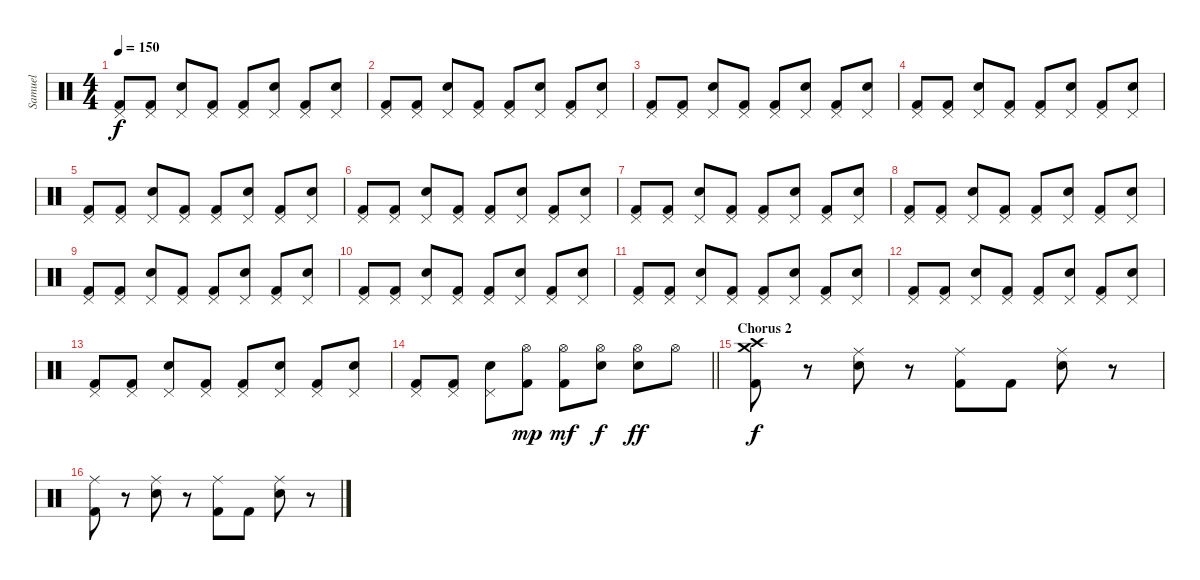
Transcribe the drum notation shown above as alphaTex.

\track ("Samuel" "Samuel") {instrument percussion}
\staff {score}
\articulation defaults
\ts (4 4)
\tempo 150
\clef neutral
\ks c
("Pedal Hi-Hat (hit)" "Kick (hit) 2").8{dy f} ("Pedal Hi-Hat (hit)" "Kick (hit) 2").8 ("Pedal Hi-Hat (hit)" "Snare (hit) 2").8 ("Pedal Hi-Hat (hit)" "Kick (hit) 2").8 ("Pedal Hi-Hat (hit)" "Kick (hit) 2").8 ("Pedal Hi-Hat (hit)" "Snare (hit) 2").8 ("Pedal Hi-Hat (hit)" "Kick (hit) 2").8 ("Pedal Hi-Hat (hit)" "Snare (hit) 2").8 |
("Pedal Hi-Hat (hit)" "Kick (hit) 2").8 ("Pedal Hi-Hat (hit)" "Kick (hit) 2").8 ("Pedal Hi-Hat (hit)" "Snare (hit) 2").8 ("Pedal Hi-Hat (hit)" "Kick (hit) 2").8 ("Pedal Hi-Hat (hit)" "Kick (hit) 2").8 ("Pedal Hi-Hat (hit)" "Snare (hit) 2").8 ("Pedal Hi-Hat (hit)" "Kick (hit) 2").8 ("Pedal Hi-Hat (hit)" "Snare (hit) 2").8 |
("Pedal Hi-Hat (hit)" "Kick (hit) 2").8 ("Pedal Hi-Hat (hit)" "Kick (hit) 2").8 ("Pedal Hi-Hat (hit)" "Snare (hit) 2").8 ("Pedal Hi-Hat (hit)" "Kick (hit) 2").8 ("Pedal Hi-Hat (hit)" "Kick (hit) 2").8 ("Pedal Hi-Hat (hit)" "Snare (hit) 2").8 ("Pedal Hi-Hat (hit)" "Kick (hit) 2").8 ("Pedal Hi-Hat (hit)" "Snare (hit) 2").8 |
("Pedal Hi-Hat (hit)" "Kick (hit) 2").8 ("Pedal Hi-Hat (hit)" "Kick (hit) 2").8 ("Pedal Hi-Hat (hit)" "Snare (hit) 2").8 ("Pedal Hi-Hat (hit)" "Kick (hit) 2").8 ("Pedal Hi-Hat (hit)" "Kick (hit) 2").8 ("Pedal Hi-Hat (hit)" "Snare (hit) 2").8 ("Pedal Hi-Hat (hit)" "Kick (hit) 2").8 ("Pedal Hi-Hat (hit)" "Snare (hit) 2").8 |
("Pedal Hi-Hat (hit)" "Kick (hit) 2").8 ("Pedal Hi-Hat (hit)" "Kick (hit) 2").8 ("Pedal Hi-Hat (hit)" "Snare (hit) 2").8 ("Pedal Hi-Hat (hit)" "Kick (hit) 2").8 ("Pedal Hi-Hat (hit)" "Kick (hit) 2").8 ("Pedal Hi-Hat (hit)" "Snare (hit) 2").8 ("Pedal Hi-Hat (hit)" "Kick (hit) 2").8 ("Pedal Hi-Hat (hit)" "Snare (hit) 2").8 |
("Pedal Hi-Hat (hit)" "Kick (hit) 2").8 ("Pedal Hi-Hat (hit)" "Kick (hit) 2").8 ("Pedal Hi-Hat (hit)" "Snare (hit) 2").8 ("Pedal Hi-Hat (hit)" "Kick (hit) 2").8 ("Pedal Hi-Hat (hit)" "Kick (hit) 2").8 ("Pedal Hi-Hat (hit)" "Snare (hit) 2").8 ("Pedal Hi-Hat (hit)" "Kick (hit) 2").8 ("Pedal Hi-Hat (hit)" "Snare (hit) 2").8 |
("Pedal Hi-Hat (hit)" "Kick (hit) 2").8 ("Pedal Hi-Hat (hit)" "Kick (hit) 2").8 ("Pedal Hi-Hat (hit)" "Snare (hit) 2").8 ("Pedal Hi-Hat (hit)" "Kick (hit) 2").8 ("Pedal Hi-Hat (hit)" "Kick (hit) 2").8 ("Pedal Hi-Hat (hit)" "Snare (hit) 2").8 ("Pedal Hi-Hat (hit)" "Kick (hit) 2").8 ("Pedal Hi-Hat (hit)" "Snare (hit) 2").8 |
("Pedal Hi-Hat (hit)" "Kick (hit) 2").8 ("Pedal Hi-Hat (hit)" "Kick (hit) 2").8 ("Pedal Hi-Hat (hit)" "Snare (hit) 2").8 ("Pedal Hi-Hat (hit)" "Kick (hit) 2").8 ("Pedal Hi-Hat (hit)" "Kick (hit) 2").8 ("Pedal Hi-Hat (hit)" "Snare (hit) 2").8 ("Pedal Hi-Hat (hit)" "Kick (hit) 2").8 ("Pedal Hi-Hat (hit)" "Snare (hit) 2").8 |
("Pedal Hi-Hat (hit)" "Kick (hit) 2").8 ("Pedal Hi-Hat (hit)" "Kick (hit) 2").8 ("Pedal Hi-Hat (hit)" "Snare (hit) 2").8 ("Pedal Hi-Hat (hit)" "Kick (hit) 2").8 ("Pedal Hi-Hat (hit)" "Kick (hit) 2").8 ("Pedal Hi-Hat (hit)" "Snare (hit) 2").8 ("Pedal Hi-Hat (hit)" "Kick (hit) 2").8 ("Pedal Hi-Hat (hit)" "Snare (hit) 2").8 |
("Pedal Hi-Hat (hit)" "Kick (hit) 2").8 ("Pedal Hi-Hat (hit)" "Kick (hit) 2").8 ("Pedal Hi-Hat (hit)" "Snare (hit) 2").8 ("Pedal Hi-Hat (hit)" "Kick (hit) 2").8 ("Pedal Hi-Hat (hit)" "Kick (hit) 2").8 ("Pedal Hi-Hat (hit)" "Snare (hit) 2").8 ("Pedal Hi-Hat (hit)" "Kick (hit) 2").8 ("Pedal Hi-Hat (hit)" "Snare (hit) 2").8 |
("Pedal Hi-Hat (hit)" "Kick (hit) 2").8 ("Pedal Hi-Hat (hit)" "Kick (hit) 2").8 ("Pedal Hi-Hat (hit)" "Snare (hit) 2").8 ("Pedal Hi-Hat (hit)" "Kick (hit) 2").8 ("Pedal Hi-Hat (hit)" "Kick (hit) 2").8 ("Pedal Hi-Hat (hit)" "Snare (hit) 2").8 ("Pedal Hi-Hat (hit)" "Kick (hit) 2").8 ("Pedal Hi-Hat (hit)" "Snare (hit) 2").8 |
("Pedal Hi-Hat (hit)" "Kick (hit) 2").8 ("Pedal Hi-Hat (hit)" "Kick (hit) 2").8 ("Pedal Hi-Hat (hit)" "Snare (hit) 2").8 ("Pedal Hi-Hat (hit)" "Kick (hit) 2").8 ("Pedal Hi-Hat (hit)" "Kick (hit) 2").8 ("Pedal Hi-Hat (hit)" "Snare (hit) 2").8 ("Pedal Hi-Hat (hit)" "Kick (hit) 2").8 ("Pedal Hi-Hat (hit)" "Snare (hit) 2").8 |
("Pedal Hi-Hat (hit)" "Kick (hit) 2").8 ("Pedal Hi-Hat (hit)" "Kick (hit) 2").8 ("Pedal Hi-Hat (hit)" "Snare (hit) 2").8 ("Pedal Hi-Hat (hit)" "Kick (hit) 2").8 ("Pedal Hi-Hat (hit)" "Kick (hit) 2").8 ("Pedal Hi-Hat (hit)" "Snare (hit) 2").8 ("Pedal Hi-Hat (hit)" "Kick (hit) 2").8 ("Pedal Hi-Hat (hit)" "Snare (hit) 2").8 |
\barLineRight lightlight
("Pedal Hi-Hat (hit)" "Kick (hit) 2").8 ("Pedal Hi-Hat (hit)" "Kick (hit) 2").8 ("Pedal Hi-Hat (hit)" "Snare (hit) 2").8 ("Hi-Hat (open)" "Kick (hit) 2").8{dy mp} ("Hi-Hat (open)" "Kick (hit) 2").8{dy mf} ("Hi-Hat (open)" "Snare (hit) 2").8{dy f} ("Hi-Hat (open)" "Snare (hit) 2").8{dy ff} "Hi-Hat (open)".8 |
\section ("" "Chorus 2")
("Crash medium (hit)" "Crash high (hit)" "Kick (hit) 2").8{dy f} r.8 ("Ride (middle)" "Snare (hit) 2").8 r.8 ("Ride (middle)" "Kick (hit) 2").8 "Kick (hit) 2".8 ("Ride (middle)" "Snare (hit) 2").8 r.8 |
("Ride (middle)" "Kick (hit) 2").8 r.8 ("Ride (middle)" "Snare (hit) 2").8 r.8 ("Ride (middle)" "Kick (hit) 2").8 "Kick (hit) 2".8 ("Ride (middle)" "Snare (hit) 2").8 r.8
